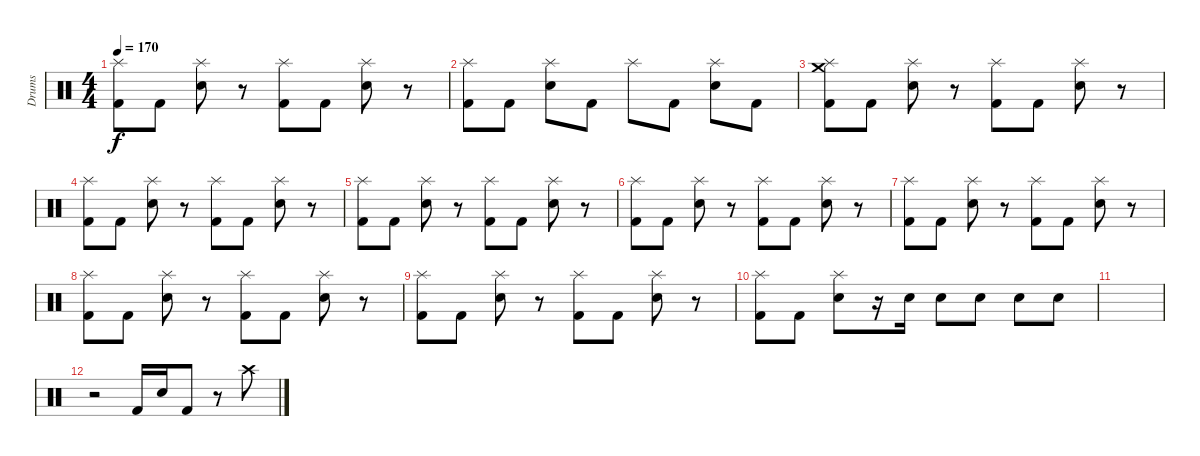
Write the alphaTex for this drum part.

\track ("Drums" "Drums") {instrument percussion}
\staff {score}
\articulation defaults
\ts (4 4)
\tempo 170
\clef neutral
\ks c
("Splash (hit)" "Kick (hit) 2").8{dy f} "Kick (hit) 2".8 ("Splash (hit)" "Electric Snare (hit)").8 r.8 ("Splash (hit)" "Kick (hit) 2").8 "Kick (hit) 2".8 ("Splash (hit)" "Electric Snare (hit)").8 r.8 |
("Splash (hit)" "Kick (hit) 2").8 "Kick (hit) 2".8 ("Splash (hit)" "Electric Snare (hit)").8 "Kick (hit) 2".8 "Splash (hit)".8 "Kick (hit) 2".8 ("Splash (hit)" "Electric Snare (hit)").8 "Kick (hit) 2".8 |
("Crash medium (hit)" "Splash (hit)" "Kick (hit) 2").8 "Kick (hit) 2".8 ("Splash (hit)" "Electric Snare (hit)").8 r.8 ("Splash (hit)" "Kick (hit) 2").8 "Kick (hit) 2".8 ("Splash (hit)" "Electric Snare (hit)").8 r.8 |
("Splash (hit)" "Kick (hit) 2").8 "Kick (hit) 2".8 ("Splash (hit)" "Electric Snare (hit)").8 r.8 ("Splash (hit)" "Kick (hit) 2").8 "Kick (hit) 2".8 ("Splash (hit)" "Electric Snare (hit)").8 r.8 |
("Splash (hit)" "Kick (hit) 2").8 "Kick (hit) 2".8 ("Splash (hit)" "Electric Snare (hit)").8 r.8 ("Splash (hit)" "Kick (hit) 2").8 "Kick (hit) 2".8 ("Splash (hit)" "Electric Snare (hit)").8 r.8 |
("Splash (hit)" "Kick (hit) 2").8 "Kick (hit) 2".8 ("Splash (hit)" "Electric Snare (hit)").8 r.8 ("Splash (hit)" "Kick (hit) 2").8 "Kick (hit) 2".8 ("Splash (hit)" "Electric Snare (hit)").8 r.8 |
("Splash (hit)" "Kick (hit) 2").8 "Kick (hit) 2".8 ("Splash (hit)" "Electric Snare (hit)").8 r.8 ("Splash (hit)" "Kick (hit) 2").8 "Kick (hit) 2".8 ("Splash (hit)" "Electric Snare (hit)").8 r.8 |
("Splash (hit)" "Kick (hit) 2").8 "Kick (hit) 2".8 ("Splash (hit)" "Electric Snare (hit)").8 r.8 ("Splash (hit)" "Kick (hit) 2").8 "Kick (hit) 2".8 ("Splash (hit)" "Electric Snare (hit)").8 r.8 |
("Splash (hit)" "Kick (hit) 2").8 "Kick (hit) 2".8 ("Splash (hit)" "Electric Snare (hit)").8 r.8 ("Splash (hit)" "Kick (hit) 2").8 "Kick (hit) 2".8 ("Splash (hit)" "Electric Snare (hit)").8 r.8 |
("Splash (hit)" "Kick (hit) 2").8 "Kick (hit) 2".8 ("Splash (hit)" "Electric Snare (hit)").8 r.16 "Electric Snare (hit)".16 "Electric Snare (hit)".8 "Electric Snare (hit)".8 "Electric Snare (hit)".8 "Electric Snare (hit)".8 |
|
r.2 "Kick (hit) 2".16 "Electric Snare (hit)".16 "Kick (hit) 2".8 r.8 "Crash high (hit)".8
